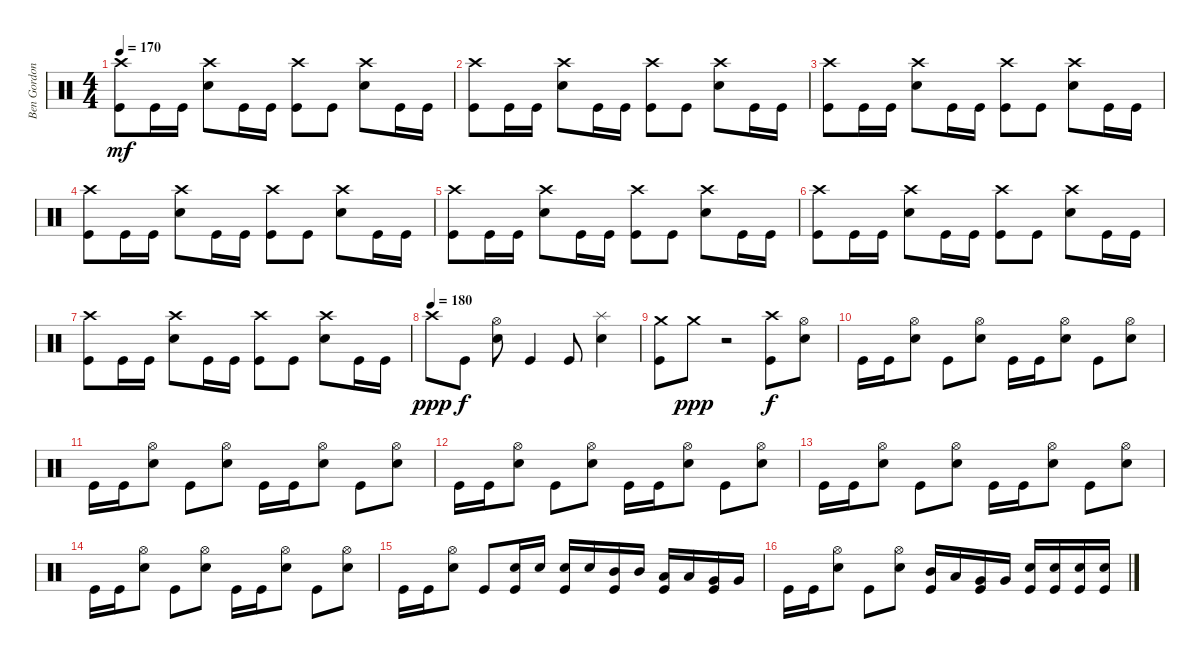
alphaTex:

\track ("Ben Gordon" "Ben Gordon") {instrument percussion}
\staff {score}
\articulation defaults
\ts (4 4)
\tempo 170
\clef neutral
\ks c
("Crash high (hit)" "Kick (hit)").8{dy mf} "Kick (hit)".16 "Kick (hit)".16 ("Crash high (hit)" "Electric Snare (hit)").8 "Kick (hit)".16 "Kick (hit)".16 ("Crash high (hit)" "Kick (hit)").8 "Kick (hit)".8 ("Crash high (hit)" "Electric Snare (hit)").8 "Kick (hit)".16 "Kick (hit)".16 |
("Crash high (hit)" "Kick (hit)").8 "Kick (hit)".16 "Kick (hit)".16 ("Crash high (hit)" "Electric Snare (hit)").8 "Kick (hit)".16 "Kick (hit)".16 ("Crash high (hit)" "Kick (hit)").8 "Kick (hit)".8 ("Crash high (hit)" "Electric Snare (hit)").8 "Kick (hit)".16 "Kick (hit)".16 |
("Crash high (hit)" "Kick (hit)").8 "Kick (hit)".16 "Kick (hit)".16 ("Crash high (hit)" "Electric Snare (hit)").8 "Kick (hit)".16 "Kick (hit)".16 ("Crash high (hit)" "Kick (hit)").8 "Kick (hit)".8 ("Crash high (hit)" "Electric Snare (hit)").8 "Kick (hit)".16 "Kick (hit)".16 |
("Crash high (hit)" "Kick (hit)").8 "Kick (hit)".16 "Kick (hit)".16 ("Crash high (hit)" "Electric Snare (hit)").8 "Kick (hit)".16 "Kick (hit)".16 ("Crash high (hit)" "Kick (hit)").8 "Kick (hit)".8 ("Crash high (hit)" "Electric Snare (hit)").8 "Kick (hit)".16 "Kick (hit)".16 |
("Crash high (hit)" "Kick (hit)").8 "Kick (hit)".16 "Kick (hit)".16 ("Crash high (hit)" "Electric Snare (hit)").8 "Kick (hit)".16 "Kick (hit)".16 ("Crash high (hit)" "Kick (hit)").8 "Kick (hit)".8 ("Crash high (hit)" "Electric Snare (hit)").8 "Kick (hit)".16 "Kick (hit)".16 |
("Crash high (hit)" "Kick (hit)").8 "Kick (hit)".16 "Kick (hit)".16 ("Crash high (hit)" "Electric Snare (hit)").8 "Kick (hit)".16 "Kick (hit)".16 ("Crash high (hit)" "Kick (hit)").8 "Kick (hit)".8 ("Crash high (hit)" "Electric Snare (hit)").8 "Kick (hit)".16 "Kick (hit)".16 |
("Crash high (hit)" "Kick (hit)").8 "Kick (hit)".16 "Kick (hit)".16 ("Crash high (hit)" "Electric Snare (hit)").8 "Kick (hit)".16 "Kick (hit)".16 ("Crash high (hit)" "Kick (hit)").8 "Kick (hit)".8 ("Crash high (hit)" "Electric Snare (hit)").8 "Kick (hit)".16 "Kick (hit)".16 |
\tempo (180)
"Crash high (hit)".8{dy ppp} "Kick (hit)".8{dy f} ("Hi-Hat (open)" "Electric Snare (hit)").8 "Kick (hit)".4 "Kick (hit)".8 ("Splash (hit)" "Electric Snare (hit)").4 |
("Crash medium (hit)" "Kick (hit)").8 "Crash medium (hit)".8{dy ppp} r.2 ("Crash high (hit)" "Kick (hit)").8{dy f} ("Hi-Hat (open)" "Electric Snare (hit)").8 |
"Kick (hit)".16 "Kick (hit)".16 ("Hi-Hat (open)" "Electric Snare (hit)").8 "Kick (hit)".8 ("Hi-Hat (open)" "Electric Snare (hit)").8 "Kick (hit)".16 "Kick (hit)".16 ("Hi-Hat (open)" "Electric Snare (hit)").8 "Kick (hit)".8 ("Hi-Hat (open)" "Electric Snare (hit)").8 |
"Kick (hit)".16 "Kick (hit)".16 ("Hi-Hat (open)" "Electric Snare (hit)").8 "Kick (hit)".8 ("Hi-Hat (open)" "Electric Snare (hit)").8 "Kick (hit)".16 "Kick (hit)".16 ("Hi-Hat (open)" "Electric Snare (hit)").8 "Kick (hit)".8 ("Hi-Hat (open)" "Electric Snare (hit)").8 |
"Kick (hit)".16 "Kick (hit)".16 ("Hi-Hat (open)" "Electric Snare (hit)").8 "Kick (hit)".8 ("Hi-Hat (open)" "Electric Snare (hit)").8 "Kick (hit)".16 "Kick (hit)".16 ("Hi-Hat (open)" "Electric Snare (hit)").8 "Kick (hit)".8 ("Hi-Hat (open)" "Electric Snare (hit)").8 |
"Kick (hit)".16 "Kick (hit)".16 ("Hi-Hat (open)" "Electric Snare (hit)").8 "Kick (hit)".8 ("Hi-Hat (open)" "Electric Snare (hit)").8 "Kick (hit)".16 "Kick (hit)".16 ("Hi-Hat (open)" "Electric Snare (hit)").8 "Kick (hit)".8 ("Hi-Hat (open)" "Electric Snare (hit)").8 |
"Kick (hit)".16 "Kick (hit)".16 ("Hi-Hat (open)" "Electric Snare (hit)").8 "Kick (hit)".8 ("Hi-Hat (open)" "Electric Snare (hit)").8 "Kick (hit)".16 "Kick (hit)".16 ("Hi-Hat (open)" "Electric Snare (hit)").8 "Kick (hit)".8 ("Hi-Hat (open)" "Electric Snare (hit)").8 |
"Kick (hit)".16 "Kick (hit)".16 ("Hi-Hat (open)" "Electric Snare (hit)").8 "Kick (hit)".8 ("Electric Snare (hit)" "Kick (hit)").16 "Electric Snare (hit)".16 ("Electric Snare (hit)" "Kick (hit)").16 "Electric Snare (hit)".16 ("Mid Tom (hit)" "Kick (hit)").16 "Mid Tom (hit)".16 ("Low Tom (hit)" "Kick (hit)").16 "Low Tom (hit)".16 ("Very Low Tom (hit)" "Kick (hit)").16 "Very Low Tom (hit)".16 |
"Kick (hit)".16 "Kick (hit)".16 ("Hi-Hat (open)" "Electric Snare (hit)").8 "Kick (hit)".8 ("Hi-Hat (open)" "Electric Snare (hit)").8 ("Mid Tom (hit)" "Kick (hit)").16 "Low Tom (hit)".16 ("Very Low Tom (hit)" "Kick (hit)").16 "Very Low Tom (hit)".16 ("Electric Snare (hit)" "Kick (hit)").16 ("Electric Snare (hit)" "Kick (hit)").16 ("Electric Snare (hit)" "Kick (hit)").16 ("Electric Snare (hit)" "Kick (hit)").16
